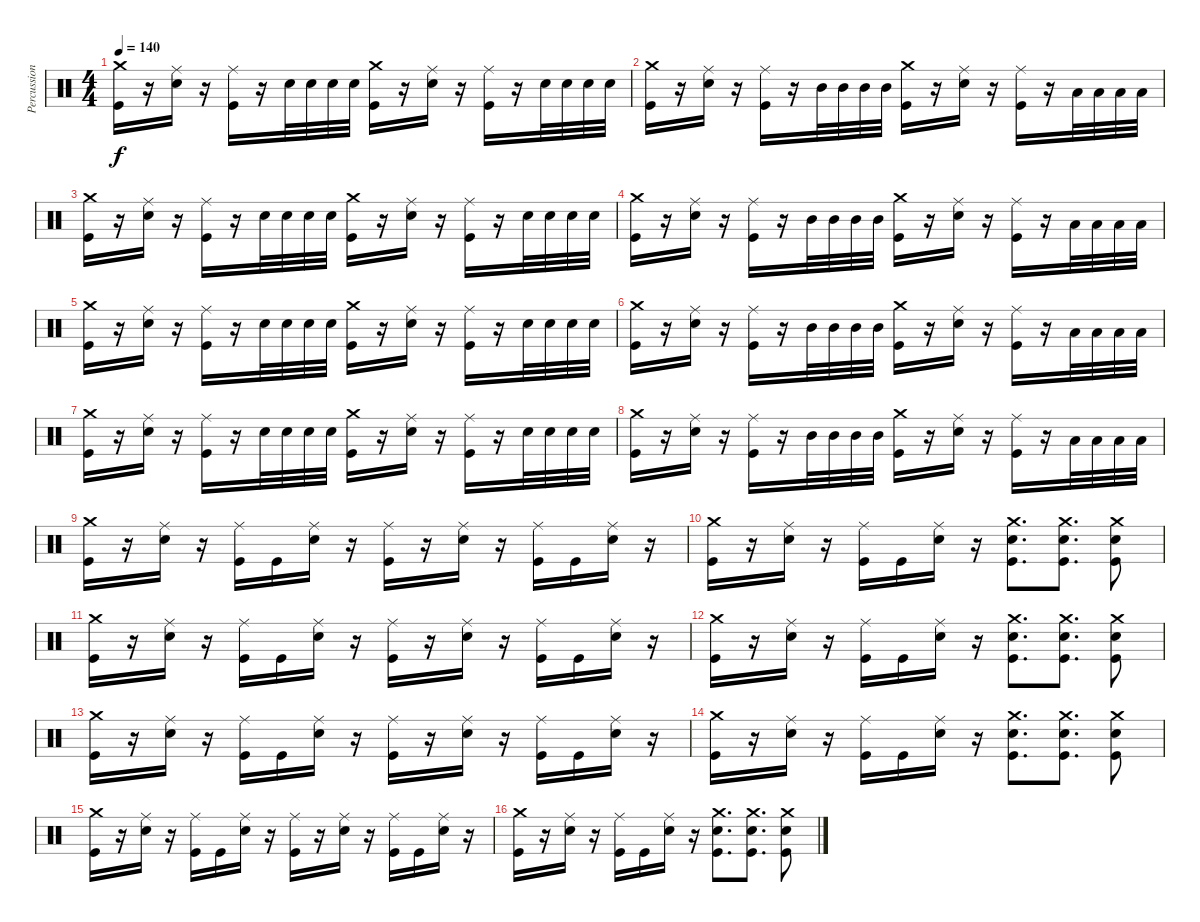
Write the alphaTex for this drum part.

\track ("Percussions( Gearbox )" "Percussion") {instrument percussion}
\staff {score}
\articulation defaults
\ts (4 4)
\tempo 140
\clef neutral
\ks c
("Crash medium (hit)" "Kick (hit)").16{dy f} r.16 ("Ride (middle)" "Snare (hit) 2").16 r.16 ("Ride (middle)" "Kick (hit)").16 r.16 "Snare (hit) 2".32 "Snare (hit) 2".32 "Snare (hit) 2".32 "Snare (hit) 2".32 ("Crash medium (hit)" "Kick (hit)").16 r.16 ("Ride (middle)" "Snare (hit) 2").16 r.16 ("Ride (middle)" "Kick (hit)").16 r.16 "Snare (hit) 2".32 "Snare (hit) 2".32 "Snare (hit) 2".32 "Snare (hit) 2".32 |
("Crash medium (hit)" "Kick (hit)").16 r.16 ("Ride (middle)" "Snare (hit) 2").16 r.16 ("Ride (middle)" "Kick (hit)").16 r.16 "Mid Tom (hit)".32 "Mid Tom (hit)".32 "Mid Tom (hit)".32 "Mid Tom (hit)".32 ("Crash medium (hit)" "Kick (hit)").16 r.16 ("Ride (middle)" "Snare (hit) 2").16 r.16 ("Ride (middle)" "Kick (hit)").16 r.16 "Low Tom (hit)".32 "Low Tom (hit)".32 "Low Tom (hit)".32 "Low Tom (hit)".32 |
("Crash medium (hit)" "Kick (hit)").16 r.16 ("Ride (middle)" "Snare (hit) 2").16 r.16 ("Ride (middle)" "Kick (hit)").16 r.16 "Snare (hit) 2".32 "Snare (hit) 2".32 "Snare (hit) 2".32 "Snare (hit) 2".32 ("Crash medium (hit)" "Kick (hit)").16 r.16 ("Ride (middle)" "Snare (hit) 2").16 r.16 ("Ride (middle)" "Kick (hit)").16 r.16 "Snare (hit) 2".32 "Snare (hit) 2".32 "Snare (hit) 2".32 "Snare (hit) 2".32 |
("Crash medium (hit)" "Kick (hit)").16 r.16 ("Ride (middle)" "Snare (hit) 2").16 r.16 ("Ride (middle)" "Kick (hit)").16 r.16 "Mid Tom (hit)".32 "Mid Tom (hit)".32 "Mid Tom (hit)".32 "Mid Tom (hit)".32 ("Crash medium (hit)" "Kick (hit)").16 r.16 ("Ride (middle)" "Snare (hit) 2").16 r.16 ("Ride (middle)" "Kick (hit)").16 r.16 "Low Tom (hit)".32 "Low Tom (hit)".32 "Low Tom (hit)".32 "Low Tom (hit)".32 |
("Crash medium (hit)" "Kick (hit)").16 r.16 ("Ride (middle)" "Snare (hit) 2").16 r.16 ("Ride (middle)" "Kick (hit)").16 r.16 "Snare (hit) 2".32 "Snare (hit) 2".32 "Snare (hit) 2".32 "Snare (hit) 2".32 ("Crash medium (hit)" "Kick (hit)").16 r.16 ("Ride (middle)" "Snare (hit) 2").16 r.16 ("Ride (middle)" "Kick (hit)").16 r.16 "Snare (hit) 2".32 "Snare (hit) 2".32 "Snare (hit) 2".32 "Snare (hit) 2".32 |
("Crash medium (hit)" "Kick (hit)").16 r.16 ("Ride (middle)" "Snare (hit) 2").16 r.16 ("Ride (middle)" "Kick (hit)").16 r.16 "Mid Tom (hit)".32 "Mid Tom (hit)".32 "Mid Tom (hit)".32 "Mid Tom (hit)".32 ("Crash medium (hit)" "Kick (hit)").16 r.16 ("Ride (middle)" "Snare (hit) 2").16 r.16 ("Ride (middle)" "Kick (hit)").16 r.16 "Low Tom (hit)".32 "Low Tom (hit)".32 "Low Tom (hit)".32 "Low Tom (hit)".32 |
("Crash medium (hit)" "Kick (hit)").16 r.16 ("Ride (middle)" "Snare (hit) 2").16 r.16 ("Ride (middle)" "Kick (hit)").16 r.16 "Snare (hit) 2".32 "Snare (hit) 2".32 "Snare (hit) 2".32 "Snare (hit) 2".32 ("Crash medium (hit)" "Kick (hit)").16 r.16 ("Ride (middle)" "Snare (hit) 2").16 r.16 ("Ride (middle)" "Kick (hit)").16 r.16 "Snare (hit) 2".32 "Snare (hit) 2".32 "Snare (hit) 2".32 "Snare (hit) 2".32 |
("Crash medium (hit)" "Kick (hit)").16 r.16 ("Ride (middle)" "Snare (hit) 2").16 r.16 ("Ride (middle)" "Kick (hit)").16 r.16 "Mid Tom (hit)".32 "Mid Tom (hit)".32 "Mid Tom (hit)".32 "Mid Tom (hit)".32 ("Crash medium (hit)" "Kick (hit)").16 r.16 ("Ride (middle)" "Snare (hit) 2").16 r.16 ("Ride (middle)" "Kick (hit)").16 r.16 "Low Tom (hit)".32 "Low Tom (hit)".32 "Low Tom (hit)".32 "Low Tom (hit)".32 |
("Crash medium (hit)" "Kick (hit)").16 r.16 ("Ride (middle)" "Snare (hit) 2").16 r.16 ("Ride (middle)" "Kick (hit)").16 "Kick (hit)".16 ("Ride (middle)" "Snare (hit) 2").16 r.16 ("Ride (middle)" "Kick (hit)").16 r.16 ("Ride (middle)" "Snare (hit) 2").16 r.16 ("Ride (middle)" "Kick (hit)").16 "Kick (hit)".16 ("Ride (middle)" "Snare (hit) 2").16 r.16 |
("Crash medium (hit)" "Kick (hit)").16 r.16 ("Ride (middle)" "Snare (hit) 2").16 r.16 ("Ride (middle)" "Kick (hit)").16 "Kick (hit)".16 ("Ride (middle)" "Snare (hit) 2").16 r.16 ("Crash medium (hit)" "Snare (hit) 2" "Kick (hit)").8{d} ("Crash medium (hit)" "Snare (hit) 2" "Kick (hit)").8{d} ("Crash medium (hit)" "Snare (hit) 2" "Kick (hit)").8 |
("Crash medium (hit)" "Kick (hit)").16 r.16 ("Ride (middle)" "Snare (hit) 2").16 r.16 ("Ride (middle)" "Kick (hit)").16 "Kick (hit)".16 ("Ride (middle)" "Snare (hit) 2").16 r.16 ("Ride (middle)" "Kick (hit)").16 r.16 ("Ride (middle)" "Snare (hit) 2").16 r.16 ("Ride (middle)" "Kick (hit)").16 "Kick (hit)".16 ("Ride (middle)" "Snare (hit) 2").16 r.16 |
("Crash medium (hit)" "Kick (hit)").16 r.16 ("Ride (middle)" "Snare (hit) 2").16 r.16 ("Ride (middle)" "Kick (hit)").16 "Kick (hit)".16 ("Ride (middle)" "Snare (hit) 2").16 r.16 ("Crash medium (hit)" "Snare (hit) 2" "Kick (hit)").8{d} ("Crash medium (hit)" "Snare (hit) 2" "Kick (hit)").8{d} ("Crash medium (hit)" "Snare (hit) 2" "Kick (hit)").8 |
("Crash medium (hit)" "Kick (hit)").16 r.16 ("Ride (middle)" "Snare (hit) 2").16 r.16 ("Ride (middle)" "Kick (hit)").16 "Kick (hit)".16 ("Ride (middle)" "Snare (hit) 2").16 r.16 ("Ride (middle)" "Kick (hit)").16 r.16 ("Ride (middle)" "Snare (hit) 2").16 r.16 ("Ride (middle)" "Kick (hit)").16 "Kick (hit)".16 ("Ride (middle)" "Snare (hit) 2").16 r.16 |
("Crash medium (hit)" "Kick (hit)").16 r.16 ("Ride (middle)" "Snare (hit) 2").16 r.16 ("Ride (middle)" "Kick (hit)").16 "Kick (hit)".16 ("Ride (middle)" "Snare (hit) 2").16 r.16 ("Crash medium (hit)" "Snare (hit) 2" "Kick (hit)").8{d} ("Crash medium (hit)" "Snare (hit) 2" "Kick (hit)").8{d} ("Crash medium (hit)" "Snare (hit) 2" "Kick (hit)").8 |
("Crash medium (hit)" "Kick (hit)").16 r.16 ("Ride (middle)" "Snare (hit) 2").16 r.16 ("Ride (middle)" "Kick (hit)").16 "Kick (hit)".16 ("Ride (middle)" "Snare (hit) 2").16 r.16 ("Ride (middle)" "Kick (hit)").16 r.16 ("Ride (middle)" "Snare (hit) 2").16 r.16 ("Ride (middle)" "Kick (hit)").16 "Kick (hit)".16 ("Ride (middle)" "Snare (hit) 2").16 r.16 |
("Crash medium (hit)" "Kick (hit)").16 r.16 ("Ride (middle)" "Snare (hit) 2").16 r.16 ("Ride (middle)" "Kick (hit)").16 "Kick (hit)".16 ("Ride (middle)" "Snare (hit) 2").16 r.16 ("Crash medium (hit)" "Snare (hit) 2" "Kick (hit)").8{d} ("Crash medium (hit)" "Snare (hit) 2" "Kick (hit)").8{d} ("Crash medium (hit)" "Snare (hit) 2" "Kick (hit)").8
